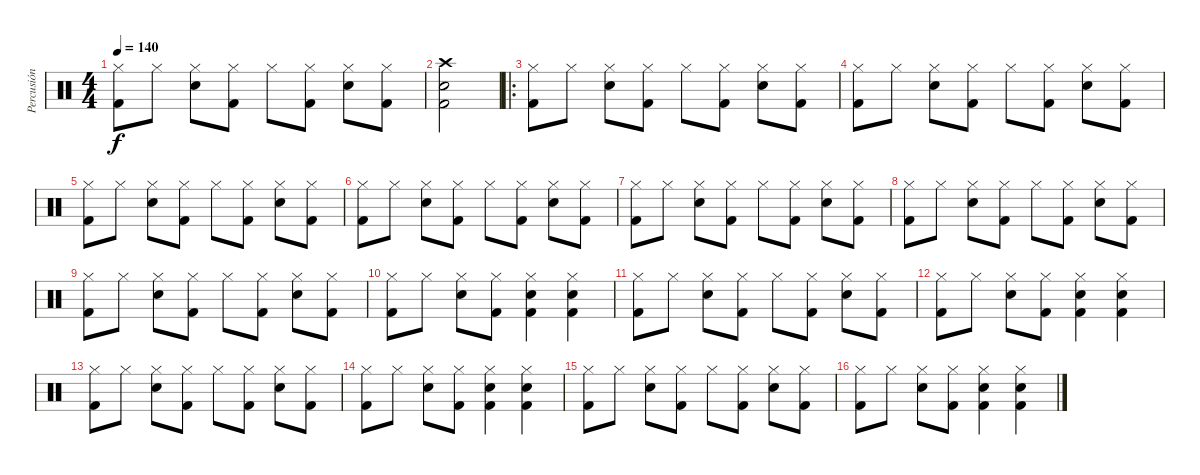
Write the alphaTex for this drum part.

\track ("Percusión" "Percusión") {instrument percussion}
\staff {score}
\articulation defaults
\ts (4 4)
\tempo 140
\clef neutral
\ks c
("Hi-Hat (closed)" "Kick (hit) 2").8{dy f} "Hi-Hat (closed)".8 ("Hi-Hat (closed)" "Snare (hit) 2").8 ("Hi-Hat (closed)" "Kick (hit) 2").8 "Hi-Hat (closed)".8 ("Hi-Hat (closed)" "Kick (hit) 2").8 ("Hi-Hat (closed)" "Snare (hit) 2").8 ("Hi-Hat (closed)" "Kick (hit) 2").8 |
("Snare (hit) 2" "Kick (hit) 2" "Crash high (hit)").2 |
\ro
("Hi-Hat (closed)" "Kick (hit) 2").8 "Hi-Hat (closed)".8 ("Hi-Hat (closed)" "Snare (hit) 2").8 ("Hi-Hat (closed)" "Kick (hit) 2").8 "Hi-Hat (closed)".8 ("Hi-Hat (closed)" "Kick (hit) 2").8 ("Hi-Hat (closed)" "Snare (hit) 2").8 ("Hi-Hat (closed)" "Kick (hit) 2").8 |
("Hi-Hat (closed)" "Kick (hit) 2").8 "Hi-Hat (closed)".8 ("Hi-Hat (closed)" "Snare (hit) 2").8 ("Hi-Hat (closed)" "Kick (hit) 2").8 "Hi-Hat (closed)".8 ("Hi-Hat (closed)" "Kick (hit) 2").8 ("Hi-Hat (closed)" "Snare (hit) 2").8 ("Hi-Hat (closed)" "Kick (hit) 2").8 |
("Hi-Hat (closed)" "Kick (hit) 2").8 "Hi-Hat (closed)".8 ("Hi-Hat (closed)" "Snare (hit) 2").8 ("Hi-Hat (closed)" "Kick (hit) 2").8 "Hi-Hat (closed)".8 ("Hi-Hat (closed)" "Kick (hit) 2").8 ("Hi-Hat (closed)" "Snare (hit) 2").8 ("Hi-Hat (closed)" "Kick (hit) 2").8 |
("Hi-Hat (closed)" "Kick (hit) 2").8 "Hi-Hat (closed)".8 ("Hi-Hat (closed)" "Snare (hit) 2").8 ("Hi-Hat (closed)" "Kick (hit) 2").8 "Hi-Hat (closed)".8 ("Hi-Hat (closed)" "Kick (hit) 2").8 ("Hi-Hat (closed)" "Snare (hit) 2").8 ("Hi-Hat (closed)" "Kick (hit) 2").8 |
("Hi-Hat (closed)" "Kick (hit) 2").8 "Hi-Hat (closed)".8 ("Hi-Hat (closed)" "Snare (hit) 2").8 ("Hi-Hat (closed)" "Kick (hit) 2").8 "Hi-Hat (closed)".8 ("Hi-Hat (closed)" "Kick (hit) 2").8 ("Hi-Hat (closed)" "Snare (hit) 2").8 ("Hi-Hat (closed)" "Kick (hit) 2").8 |
("Hi-Hat (closed)" "Kick (hit) 2").8 "Hi-Hat (closed)".8 ("Hi-Hat (closed)" "Snare (hit) 2").8 ("Hi-Hat (closed)" "Kick (hit) 2").8 "Hi-Hat (closed)".8 ("Hi-Hat (closed)" "Kick (hit) 2").8 ("Hi-Hat (closed)" "Snare (hit) 2").8 ("Hi-Hat (closed)" "Kick (hit) 2").8 |
("Hi-Hat (closed)" "Kick (hit) 2").8 "Hi-Hat (closed)".8 ("Hi-Hat (closed)" "Snare (hit) 2").8 ("Hi-Hat (closed)" "Kick (hit) 2").8 "Hi-Hat (closed)".8 ("Hi-Hat (closed)" "Kick (hit) 2").8 ("Hi-Hat (closed)" "Snare (hit) 2").8 ("Hi-Hat (closed)" "Kick (hit) 2").8 |
("Hi-Hat (closed)" "Kick (hit) 2").8 "Hi-Hat (closed)".8 ("Hi-Hat (closed)" "Snare (hit) 2").8 ("Hi-Hat (closed)" "Kick (hit) 2").8 ("Hi-Hat (closed)" "Snare (hit) 2" "Kick (hit) 2").4 ("Hi-Hat (closed)" "Snare (hit) 2" "Kick (hit) 2").4 |
("Hi-Hat (closed)" "Kick (hit) 2").8 "Hi-Hat (closed)".8 ("Hi-Hat (closed)" "Snare (hit) 2").8 ("Hi-Hat (closed)" "Kick (hit) 2").8 "Hi-Hat (closed)".8 ("Hi-Hat (closed)" "Kick (hit) 2").8 ("Hi-Hat (closed)" "Snare (hit) 2").8 ("Hi-Hat (closed)" "Kick (hit) 2").8 |
("Hi-Hat (closed)" "Kick (hit) 2").8 "Hi-Hat (closed)".8 ("Hi-Hat (closed)" "Snare (hit) 2").8 ("Hi-Hat (closed)" "Kick (hit) 2").8 ("Hi-Hat (closed)" "Snare (hit) 2" "Kick (hit) 2").4 ("Hi-Hat (closed)" "Snare (hit) 2" "Kick (hit) 2").4 |
("Hi-Hat (closed)" "Kick (hit) 2").8 "Hi-Hat (closed)".8 ("Hi-Hat (closed)" "Snare (hit) 2").8 ("Hi-Hat (closed)" "Kick (hit) 2").8 "Hi-Hat (closed)".8 ("Hi-Hat (closed)" "Kick (hit) 2").8 ("Hi-Hat (closed)" "Snare (hit) 2").8 ("Hi-Hat (closed)" "Kick (hit) 2").8 |
("Hi-Hat (closed)" "Kick (hit) 2").8 "Hi-Hat (closed)".8 ("Hi-Hat (closed)" "Snare (hit) 2").8 ("Hi-Hat (closed)" "Kick (hit) 2").8 ("Hi-Hat (closed)" "Snare (hit) 2" "Kick (hit) 2").4 ("Hi-Hat (closed)" "Snare (hit) 2" "Kick (hit) 2").4 |
("Hi-Hat (closed)" "Kick (hit) 2").8 "Hi-Hat (closed)".8 ("Hi-Hat (closed)" "Snare (hit) 2").8 ("Hi-Hat (closed)" "Kick (hit) 2").8 "Hi-Hat (closed)".8 ("Hi-Hat (closed)" "Kick (hit) 2").8 ("Hi-Hat (closed)" "Snare (hit) 2").8 ("Hi-Hat (closed)" "Kick (hit) 2").8 |
("Hi-Hat (closed)" "Kick (hit) 2").8 "Hi-Hat (closed)".8 ("Hi-Hat (closed)" "Snare (hit) 2").8 ("Hi-Hat (closed)" "Kick (hit) 2").8 ("Hi-Hat (closed)" "Snare (hit) 2" "Kick (hit) 2").4 ("Hi-Hat (closed)" "Snare (hit) 2" "Kick (hit) 2").4
